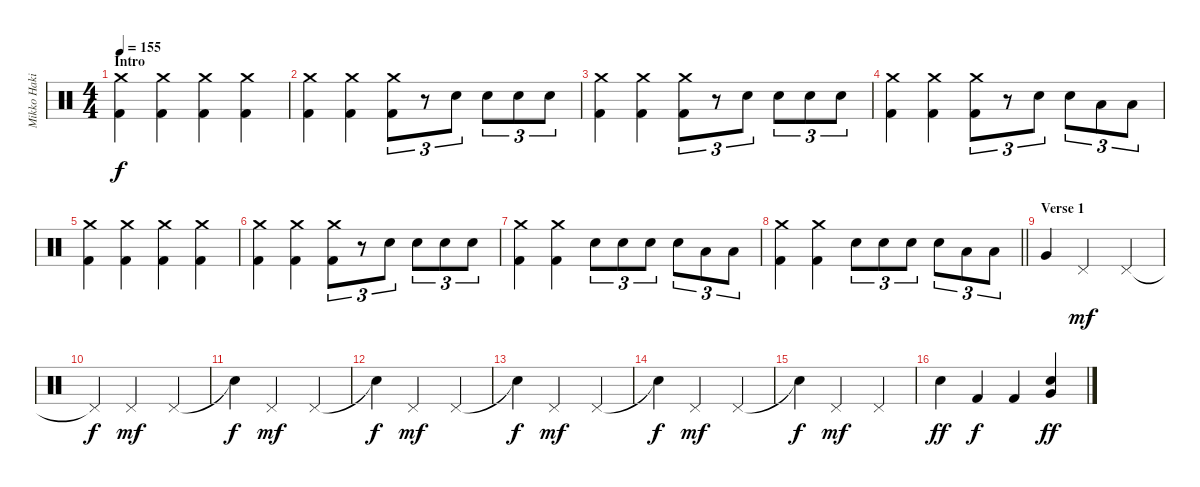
\track ("Mikko Hakila - Drums" "Mikko Haki") {instrument percussion}
\staff {score}
\articulation defaults
\ts (4 4)
\section ("" "Intro")
\tempo 155
\clef neutral
\ks c
("Crash medium (hit)" "Kick (hit) 2").4{dy f} ("Crash medium (hit)" "Kick (hit) 2").4 ("Crash medium (hit)" "Kick (hit) 2").4 ("Crash medium (hit)" "Kick (hit) 2").4 |
("Crash medium (hit)" "Kick (hit) 2").4 ("Crash medium (hit)" "Kick (hit) 2").4 ("Crash medium (hit)" "Kick (hit) 2").8{tu (3 2)} r.8{tu (3 2)} "Electric Snare (hit)".8{tu (3 2)} "Electric Snare (hit)".8{tu (3 2)} "Electric Snare (hit)".8{tu (3 2)} "Electric Snare (hit)".8{tu (3 2)} |
("Crash medium (hit)" "Kick (hit) 2").4 ("Crash medium (hit)" "Kick (hit) 2").4 ("Crash medium (hit)" "Kick (hit) 2").8{tu (3 2)} r.8{tu (3 2)} "Electric Snare (hit)".8{tu (3 2)} "Electric Snare (hit)".8{tu (3 2)} "Electric Snare (hit)".8{tu (3 2)} "Electric Snare (hit)".8{tu (3 2)} |
("Crash medium (hit)" "Kick (hit) 2").4 ("Crash medium (hit)" "Kick (hit) 2").4 ("Crash medium (hit)" "Kick (hit) 2").8{tu (3 2)} r.8{tu (3 2)} "Electric Snare (hit)".8{tu (3 2)} "Electric Snare (hit)".8{tu (3 2)} "Low Tom (hit)".8{tu (3 2)} "Low Tom (hit)".8{tu (3 2)} |
("Crash medium (hit)" "Kick (hit) 2").4 ("Crash medium (hit)" "Kick (hit) 2").4 ("Crash medium (hit)" "Kick (hit) 2").4 ("Crash medium (hit)" "Kick (hit) 2").4 |
("Crash medium (hit)" "Kick (hit) 2").4 ("Crash medium (hit)" "Kick (hit) 2").4 ("Crash medium (hit)" "Kick (hit) 2").8{tu (3 2)} r.8{tu (3 2)} "Electric Snare (hit)".8{tu (3 2)} "Electric Snare (hit)".8{tu (3 2)} "Electric Snare (hit)".8{tu (3 2)} "Electric Snare (hit)".8{tu (3 2)} |
("Crash medium (hit)" "Kick (hit) 2").4 ("Crash medium (hit)" "Kick (hit) 2").4 "Electric Snare (hit)".8{tu (3 2)} "Electric Snare (hit)".8{tu (3 2)} "Electric Snare (hit)".8{tu (3 2)} "Electric Snare (hit)".8{tu (3 2)} "Low Tom (hit)".8{tu (3 2)} "Low Tom (hit)".8{tu (3 2)} |
\barLineRight lightlight
("Crash medium (hit)" "Kick (hit) 2").4 ("Crash medium (hit)" "Kick (hit) 2").4 "Electric Snare (hit)".8{tu (3 2)} "Electric Snare (hit)".8{tu (3 2)} "Electric Snare (hit)".8{tu (3 2)} "Electric Snare (hit)".8{tu (3 2)} "Low Tom (hit)".8{tu (3 2)} "Low Tom (hit)".8{tu (3 2)} |
\section ("" "Verse 1")
"Very Low Tom (hit)".4 "Pedal Hi-Hat (hit)".2{dy mf} "Pedal Hi-Hat (hit)".4 |
"Pedal Hi-Hat (hit)"{t}.4{dy f} "Pedal Hi-Hat (hit)".2{dy mf} "Pedal Hi-Hat (hit)".4 |
"Snare (hit)"{t}.4{dy f} "Pedal Hi-Hat (hit)".2{dy mf} "Pedal Hi-Hat (hit)".4 |
"Snare (hit)"{t}.4{dy f} "Pedal Hi-Hat (hit)".2{dy mf} "Pedal Hi-Hat (hit)".4 |
"Snare (hit)"{t}.4{dy f} "Pedal Hi-Hat (hit)".2{dy mf} "Pedal Hi-Hat (hit)".4 |
"Snare (hit)"{t}.4{dy f} "Pedal Hi-Hat (hit)".2{dy mf} "Pedal Hi-Hat (hit)".4 |
"Snare (hit)"{t}.4{dy f} "Pedal Hi-Hat (hit)".2{dy mf} "Pedal Hi-Hat (hit)".4 |
"Electric Snare (hit)".4{dy ff} "Kick (hit) 2".4{dy f} "Kick (hit) 2".4 ("Electric Snare (hit)" "Very Low Tom (hit)").4{dy ff}
